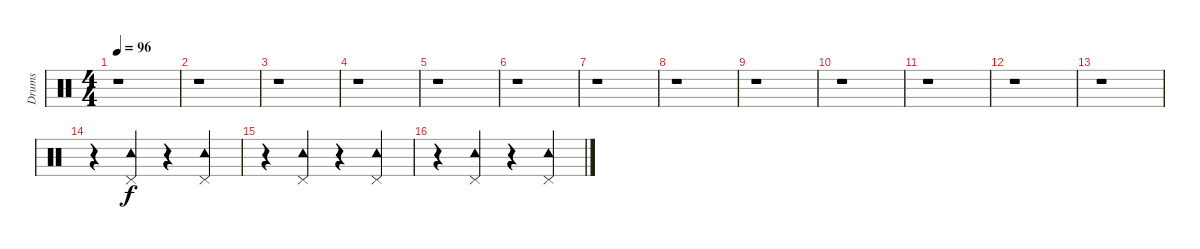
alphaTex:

\track ("Drums" "Drums") {instrument percussion}
\staff {score}
\articulation defaults
\ts (4 4)
\tempo 96
\clef neutral
\ks c
r.1{dy f} |
r.1 |
r.1 |
r.1 |
r.1 |
r.1 |
r.1 |
r.1 |
r.1 |
r.1 |
r.1 |
r.1 |
r.1 |
r.4 ("Pedal Hi-Hat (hit)" "Tambourine (hit)").4 r.4 ("Pedal Hi-Hat (hit)" "Tambourine (hit)").4 |
r.4 ("Pedal Hi-Hat (hit)" "Tambourine (hit)").4 r.4 ("Pedal Hi-Hat (hit)" "Tambourine (hit)").4 |
r.4 ("Pedal Hi-Hat (hit)" "Tambourine (hit)").4 r.4 ("Pedal Hi-Hat (hit)" "Tambourine (hit)").4
